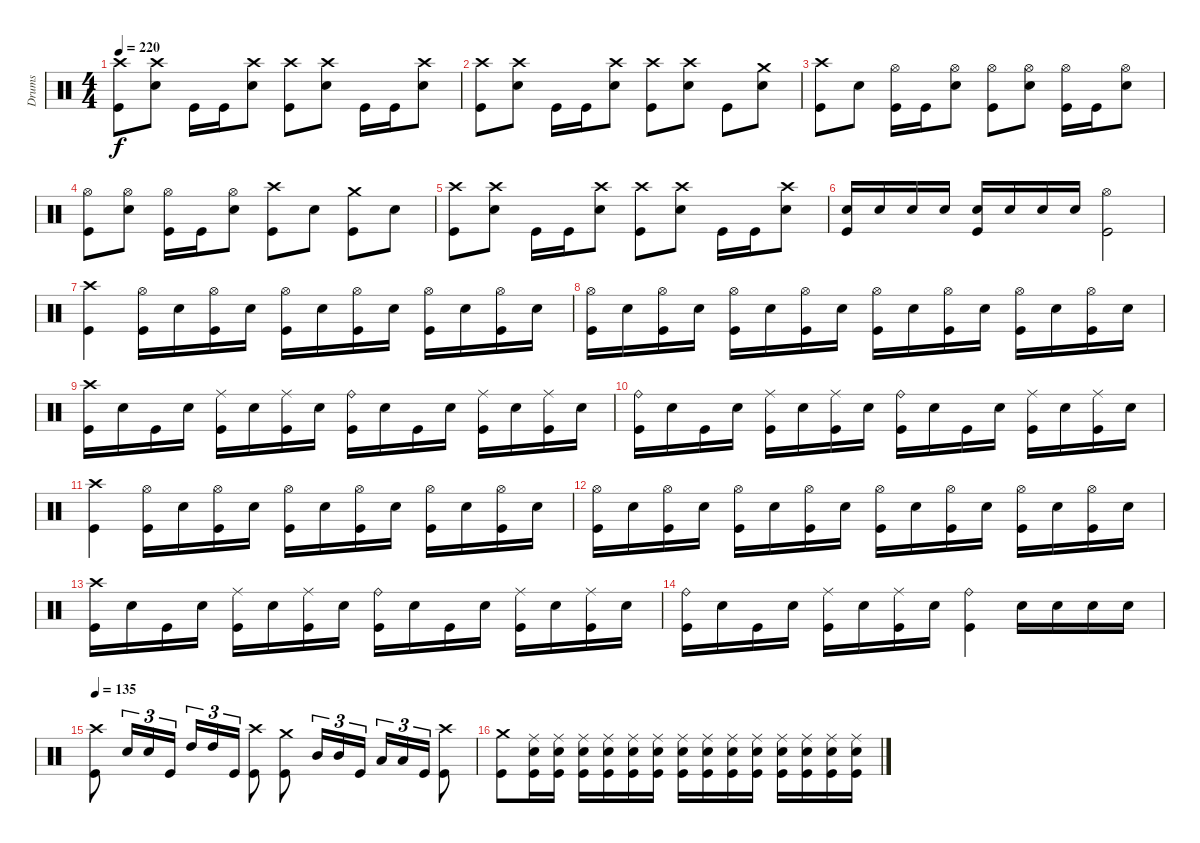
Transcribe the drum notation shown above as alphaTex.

\track ("Drums" "Drums") {instrument percussion}
\staff {score}
\articulation defaults
\ts (4 4)
\tempo 220
\clef neutral
\ks c
("Crash high (hit)" "Kick (hit)").8{dy f} ("Crash high (hit)" "Snare (hit) 2").8 "Kick (hit)".16 "Kick (hit)".16 ("Crash high (hit)" "Snare (hit) 2").8 ("Crash high (hit)" "Kick (hit)").8 ("Crash high (hit)" "Snare (hit) 2").8 "Kick (hit)".16 "Kick (hit)".16 ("Crash high (hit)" "Snare (hit) 2").8 |
("Crash high (hit)" "Kick (hit)").8 ("Crash high (hit)" "Snare (hit) 2").8 "Kick (hit)".16 "Kick (hit)".16 ("Crash high (hit)" "Snare (hit) 2").8 ("Crash high (hit)" "Kick (hit)").8 ("Crash high (hit)" "Snare (hit) 2").8 "Kick (hit)".8 ("Crash medium (hit)" "Snare (hit) 2").8 |
("Crash high (hit)" "Kick (hit)").8 "Snare (hit) 2".8 ("Hi-Hat (open)" "Kick (hit)").16 "Kick (hit)".16 ("Hi-Hat (open)" "Snare (hit) 2").8 ("Hi-Hat (open)" "Kick (hit)").8 ("Hi-Hat (open)" "Snare (hit) 2").8 ("Hi-Hat (open)" "Kick (hit)").16 "Kick (hit)".16 ("Hi-Hat (open)" "Snare (hit) 2").8 |
("Hi-Hat (open)" "Kick (hit)").8 ("Hi-Hat (open)" "Snare (hit) 2").8 ("Hi-Hat (open)" "Kick (hit)").16 "Kick (hit)".16 ("Hi-Hat (open)" "Snare (hit) 2").8 ("Crash high (hit)" "Kick (hit)").8 "Snare (hit) 2".8 ("Crash medium (hit)" "Kick (hit)").8 "Snare (hit) 2".8 |
("Crash high (hit)" "Kick (hit)").8 ("Crash high (hit)" "Snare (hit) 2").8 "Kick (hit)".16 "Kick (hit)".16 ("Crash high (hit)" "Snare (hit) 2").8 ("Crash high (hit)" "Kick (hit)").8 ("Crash high (hit)" "Snare (hit) 2").8 "Kick (hit)".16 "Kick (hit)".16 ("Crash high (hit)" "Snare (hit) 2").8 |
("Snare (hit) 2" "Kick (hit)").16 "Snare (hit) 2".16 "Snare (hit) 2".16 "Snare (hit) 2".16 ("Snare (hit) 2" "Kick (hit)").16 "Snare (hit) 2".16 "Snare (hit) 2".16 "Snare (hit) 2".16 ("Hi-Hat (open)" "Kick (hit)").2 |
("Crash high (hit)" "Kick (hit)").4 ("Hi-Hat (open)" "Kick (hit)").16 "Snare (hit) 2".16 ("Hi-Hat (open)" "Kick (hit)").16 "Snare (hit) 2".16 ("Hi-Hat (open)" "Kick (hit)").16 "Snare (hit) 2".16 ("Hi-Hat (open)" "Kick (hit)").16 "Snare (hit) 2".16 ("Hi-Hat (open)" "Kick (hit)").16 "Snare (hit) 2".16 ("Hi-Hat (open)" "Kick (hit)").16 "Snare (hit) 2".16 |
("Hi-Hat (open)" "Kick (hit)").16 "Snare (hit) 2".16 ("Hi-Hat (open)" "Kick (hit)").16 "Snare (hit) 2".16 ("Hi-Hat (open)" "Kick (hit)").16 "Snare (hit) 2".16 ("Hi-Hat (open)" "Kick (hit)").16 "Snare (hit) 2".16 ("Hi-Hat (open)" "Kick (hit)").16 "Snare (hit) 2".16 ("Hi-Hat (open)" "Kick (hit)").16 "Snare (hit) 2".16 ("Hi-Hat (open)" "Kick (hit)").16 "Snare (hit) 2".16 ("Hi-Hat (open)" "Kick (hit)").16 "Snare (hit) 2".16 |
("Crash high (hit)" "Kick (hit)").16 "Snare (hit) 2".16 "Kick (hit)".16 "Snare (hit) 2".16 ("Ride (middle)" "Kick (hit)").16 "Snare (hit) 2".16 ("Ride (middle)" "Kick (hit)").16 "Snare (hit) 2".16 ("Ride (bell)" "Kick (hit)").16 "Snare (hit) 2".16 "Kick (hit)".16 "Snare (hit) 2".16 ("Ride (middle)" "Kick (hit)").16 "Snare (hit) 2".16 ("Ride (middle)" "Kick (hit)").16 "Snare (hit) 2".16 |
("Ride (bell)" "Kick (hit)").16 "Snare (hit) 2".16 "Kick (hit)".16 "Snare (hit) 2".16 ("Ride (middle)" "Kick (hit)").16 "Snare (hit) 2".16 ("Ride (middle)" "Kick (hit)").16 "Snare (hit) 2".16 ("Ride (bell)" "Kick (hit)").16 "Snare (hit) 2".16 "Kick (hit)".16 "Snare (hit) 2".16 ("Ride (middle)" "Kick (hit)").16 "Snare (hit) 2".16 ("Ride (middle)" "Kick (hit)").16 "Snare (hit) 2".16 |
("Crash high (hit)" "Kick (hit)").4 ("Hi-Hat (open)" "Kick (hit)").16 "Snare (hit) 2".16 ("Hi-Hat (open)" "Kick (hit)").16 "Snare (hit) 2".16 ("Hi-Hat (open)" "Kick (hit)").16 "Snare (hit) 2".16 ("Hi-Hat (open)" "Kick (hit)").16 "Snare (hit) 2".16 ("Hi-Hat (open)" "Kick (hit)").16 "Snare (hit) 2".16 ("Hi-Hat (open)" "Kick (hit)").16 "Snare (hit) 2".16 |
("Hi-Hat (open)" "Kick (hit)").16 "Snare (hit) 2".16 ("Hi-Hat (open)" "Kick (hit)").16 "Snare (hit) 2".16 ("Hi-Hat (open)" "Kick (hit)").16 "Snare (hit) 2".16 ("Hi-Hat (open)" "Kick (hit)").16 "Snare (hit) 2".16 ("Hi-Hat (open)" "Kick (hit)").16 "Snare (hit) 2".16 ("Hi-Hat (open)" "Kick (hit)").16 "Snare (hit) 2".16 ("Hi-Hat (open)" "Kick (hit)").16 "Snare (hit) 2".16 ("Hi-Hat (open)" "Kick (hit)").16 "Snare (hit) 2".16 |
("Crash high (hit)" "Kick (hit)").16 "Snare (hit) 2".16 "Kick (hit)".16 "Snare (hit) 2".16 ("Ride (middle)" "Kick (hit)").16 "Snare (hit) 2".16 ("Ride (middle)" "Kick (hit)").16 "Snare (hit) 2".16 ("Ride (bell)" "Kick (hit)").16 "Snare (hit) 2".16 "Kick (hit)".16 "Snare (hit) 2".16 ("Ride (middle)" "Kick (hit)").16 "Snare (hit) 2".16 ("Ride (middle)" "Kick (hit)").16 "Snare (hit) 2".16 |
("Ride (bell)" "Kick (hit)").16 "Snare (hit) 2".16 "Kick (hit)".16 "Snare (hit) 2".16 ("Ride (middle)" "Kick (hit)").16 "Snare (hit) 2".16 ("Ride (middle)" "Kick (hit)").16 "Snare (hit) 2".16 ("Ride (bell)" "Kick (hit)").4 "Snare (hit) 2".16 "Snare (hit) 2".16 "Snare (hit) 2".16 "Snare (hit) 2".16 |
\tempo 140
\tempo 135
("Crash high (hit)" "Kick (hit)").8 "Snare (hit) 2".16{tu (3 2)} "Snare (hit) 2".16{tu (3 2)} "Kick (hit)".16{tu (3 2)} "High Tom (hit)".16{tu (3 2)} "High Tom (hit)".16{tu (3 2)} "Kick (hit)".16{tu (3 2)} ("Crash high (hit)" "Kick (hit)").8 ("Crash medium (hit)" "Kick (hit)").8 "Mid Tom (hit)".16{tu (3 2)} "Mid Tom (hit)".16{tu (3 2)} "Kick (hit)".16{tu (3 2)} "Low Tom (hit)".16{tu (3 2)} "Low Tom (hit)".16{tu (3 2)} "Kick (hit)".16{tu (3 2)} ("Crash high (hit)" "Kick (hit)").8 |
("Crash medium (hit)" "Kick (hit)").8 ("Ride (middle)" "Snare (hit) 2" "Kick (hit)").16 ("Ride (middle)" "Snare (hit) 2" "Kick (hit)").16 ("Ride (middle)" "Snare (hit) 2" "Kick (hit)").16 ("Ride (middle)" "Snare (hit) 2" "Kick (hit)").16 ("Ride (middle)" "Snare (hit) 2" "Kick (hit)").16 ("Ride (middle)" "Snare (hit) 2" "Kick (hit)").16 ("Ride (middle)" "Snare (hit) 2" "Kick (hit)").16 ("Ride (middle)" "Snare (hit) 2" "Kick (hit)").16 ("Ride (middle)" "Snare (hit) 2" "Kick (hit)").16 ("Ride (middle)" "Snare (hit) 2" "Kick (hit)").16 ("Ride (middle)" "Snare (hit) 2" "Kick (hit)").16 ("Ride (middle)" "Snare (hit) 2" "Kick (hit)").16 ("Ride (middle)" "Snare (hit) 2" "Kick (hit)").16 ("Ride (middle)" "Snare (hit) 2" "Kick (hit)").16
